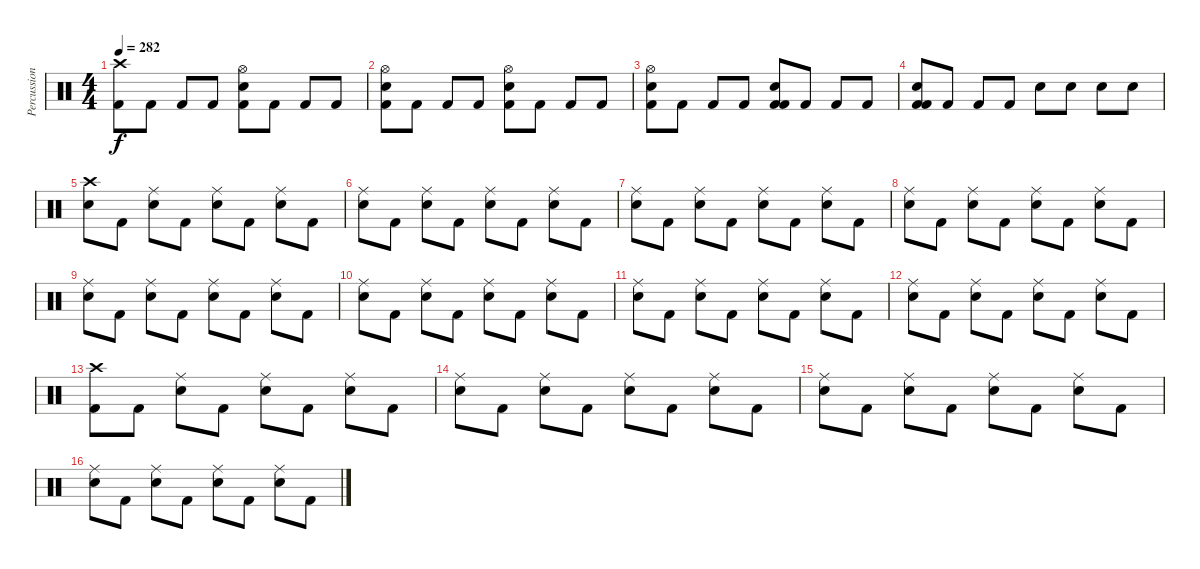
\track ("Percussion" "Percussion") {instrument percussion}
\staff {score}
\articulation defaults
\ts (4 4)
\tempo 282
\clef neutral
\ks c
("Kick (hit) 2" "Crash high (hit)").8{dy f} "Kick (hit) 2".8 "Kick (hit) 2".8 "Kick (hit) 2".8 ("Kick (hit) 2" "Snare (hit) 2" "Hi-Hat (open)").8 "Kick (hit) 2".8 "Kick (hit) 2".8 "Kick (hit) 2".8 |
("Kick (hit) 2" "Snare (hit) 2" "Hi-Hat (open)").8 "Kick (hit) 2".8 "Kick (hit) 2".8 "Kick (hit) 2".8 ("Kick (hit) 2" "Snare (hit) 2" "Hi-Hat (open)").8 "Kick (hit) 2".8 "Kick (hit) 2".8 "Kick (hit) 2".8 |
("Kick (hit) 2" "Snare (hit) 2" "Hi-Hat (open)").8 "Kick (hit) 2".8 "Kick (hit) 2".8 "Kick (hit) 2".8 ("Kick (hit) 2" "Snare (hit) 2" "Kick (hit) 2").8 "Kick (hit) 2".8 "Kick (hit) 2".8 "Kick (hit) 2".8 |
("Kick (hit) 2" "Snare (hit) 2" "Kick (hit) 2").8 "Kick (hit) 2".8 "Kick (hit) 2".8 "Kick (hit) 2".8 "Snare (hit) 2".8 "Snare (hit) 2".8 "Snare (hit) 2".8 "Snare (hit) 2".8 |
("Snare (hit) 2" "Crash high (hit)").8 "Kick (hit) 2".8 ("Snare (hit) 2" "Ride (middle)").8 "Kick (hit) 2".8 ("Snare (hit) 2" "Ride (middle)").8 "Kick (hit) 2".8 ("Snare (hit) 2" "Ride (middle)").8 "Kick (hit) 2".8 |
("Snare (hit) 2" "Ride (middle)").8 "Kick (hit) 2".8 ("Snare (hit) 2" "Ride (middle)").8 "Kick (hit) 2".8 ("Snare (hit) 2" "Ride (middle)").8 "Kick (hit) 2".8 ("Snare (hit) 2" "Ride (middle)").8 "Kick (hit) 2".8 |
("Snare (hit) 2" "Ride (middle)").8 "Kick (hit) 2".8 ("Snare (hit) 2" "Ride (middle)").8 "Kick (hit) 2".8 ("Snare (hit) 2" "Ride (middle)").8 "Kick (hit) 2".8 ("Snare (hit) 2" "Ride (middle)").8 "Kick (hit) 2".8 |
("Snare (hit) 2" "Ride (middle)").8 "Kick (hit) 2".8 ("Snare (hit) 2" "Ride (middle)").8 "Kick (hit) 2".8 ("Snare (hit) 2" "Ride (middle)").8 "Kick (hit) 2".8 ("Snare (hit) 2" "Ride (middle)").8 "Kick (hit) 2".8 |
("Snare (hit) 2" "Ride (middle)").8 "Kick (hit) 2".8 ("Snare (hit) 2" "Ride (middle)").8 "Kick (hit) 2".8 ("Snare (hit) 2" "Ride (middle)").8 "Kick (hit) 2".8 ("Snare (hit) 2" "Ride (middle)").8 "Kick (hit) 2".8 |
("Snare (hit) 2" "Ride (middle)").8 "Kick (hit) 2".8 ("Snare (hit) 2" "Ride (middle)").8 "Kick (hit) 2".8 ("Snare (hit) 2" "Ride (middle)").8 "Kick (hit) 2".8 ("Snare (hit) 2" "Ride (middle)").8 "Kick (hit) 2".8 |
("Snare (hit) 2" "Ride (middle)").8 "Kick (hit) 2".8 ("Snare (hit) 2" "Ride (middle)").8 "Kick (hit) 2".8 ("Snare (hit) 2" "Ride (middle)").8 "Kick (hit) 2".8 ("Snare (hit) 2" "Ride (middle)").8 "Kick (hit) 2".8 |
("Snare (hit) 2" "Ride (middle)").8 "Kick (hit) 2".8 ("Snare (hit) 2" "Ride (middle)").8 "Kick (hit) 2".8 ("Snare (hit) 2" "Ride (middle)").8 "Kick (hit) 2".8 ("Snare (hit) 2" "Ride (middle)").8 "Kick (hit) 2".8 |
("Kick (hit) 2" "Crash high (hit)").8 "Kick (hit) 2"{x}.8 ("Snare (hit) 2" "Ride (middle)").8 "Kick (hit) 2".8 ("Snare (hit) 2" "Ride (middle)").8 "Kick (hit) 2".8 ("Snare (hit) 2" "Ride (middle)").8 "Kick (hit) 2".8 |
("Snare (hit) 2" "Ride (middle)").8 "Kick (hit) 2".8 ("Snare (hit) 2" "Ride (middle)").8 "Kick (hit) 2".8 ("Snare (hit) 2" "Ride (middle)").8 "Kick (hit) 2".8 ("Snare (hit) 2" "Ride (middle)").8 "Kick (hit) 2".8 |
("Snare (hit) 2" "Ride (middle)").8 "Kick (hit) 2".8 ("Snare (hit) 2" "Ride (middle)").8 "Kick (hit) 2".8 ("Snare (hit) 2" "Ride (middle)").8 "Kick (hit) 2".8 ("Snare (hit) 2" "Ride (middle)").8 "Kick (hit) 2".8 |
("Snare (hit) 2" "Ride (middle)").8 "Kick (hit) 2".8 ("Snare (hit) 2" "Ride (middle)").8 "Kick (hit) 2".8 ("Snare (hit) 2" "Ride (middle)").8 "Kick (hit) 2".8 ("Snare (hit) 2" "Ride (middle)").8 "Kick (hit) 2".8
